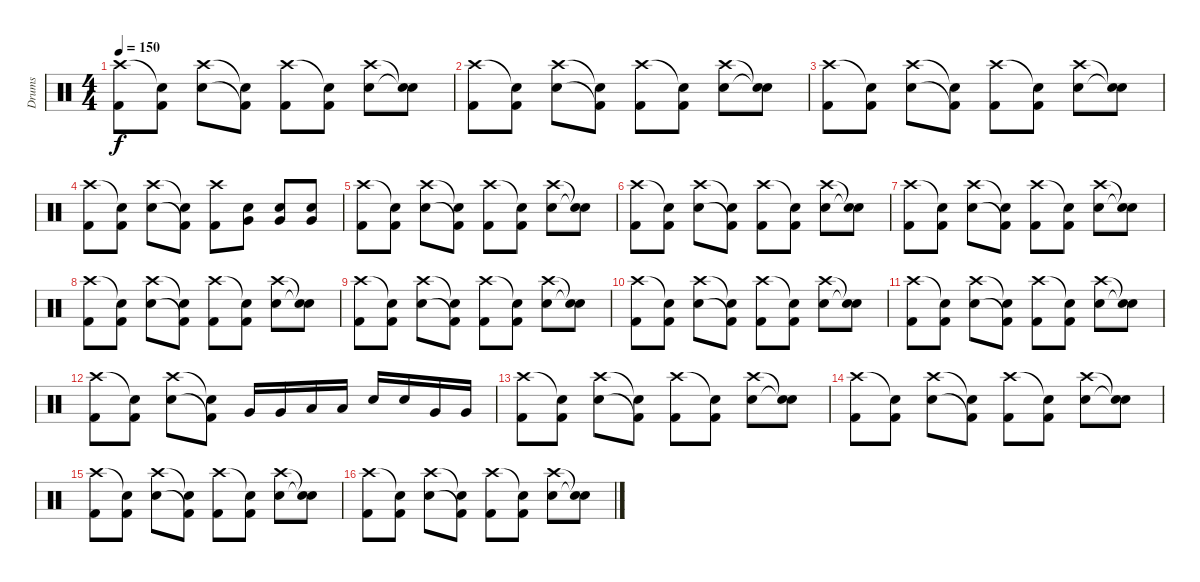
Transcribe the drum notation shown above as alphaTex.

\track ("Drums" "Drums") {instrument percussion bank 127}
\staff {score}
\articulation defaults
\ts (4 4)
\tempo 150
\clef neutral
\ks c
("Crash high (hit)" "Kick (hit) 2").8{dy f} ("Snare (hit)"{t} "Kick (hit) 2").8 ("Crash high (hit)" "Electric Snare (hit)").8 ("Snare (hit)"{t} "Kick (hit) 2"{t}).8 ("Crash high (hit)" "Kick (hit) 2").8 ("Snare (hit)"{t} "Kick (hit) 2").8 ("Crash high (hit)" "Electric Snare (hit)").8 ("Snare (hit)"{t} "Snare (hit)"{t}).8 |
("Crash high (hit)" "Kick (hit) 2").8 ("Snare (hit)"{t} "Kick (hit) 2").8 ("Crash high (hit)" "Electric Snare (hit)").8 ("Snare (hit)"{t} "Kick (hit) 2"{t}).8 ("Crash high (hit)" "Kick (hit) 2").8 ("Snare (hit)"{t} "Kick (hit) 2").8 ("Crash high (hit)" "Electric Snare (hit)").8 ("Snare (hit)"{t} "Snare (hit)"{t}).8 |
("Crash high (hit)" "Kick (hit) 2").8 ("Snare (hit)"{t} "Kick (hit) 2").8 ("Crash high (hit)" "Electric Snare (hit)").8 ("Snare (hit)"{t} "Kick (hit) 2"{t}).8 ("Crash high (hit)" "Kick (hit) 2").8 ("Snare (hit)"{t} "Kick (hit) 2").8 ("Crash high (hit)" "Electric Snare (hit)").8 ("Snare (hit)"{t} "Snare (hit)"{t}).8 |
("Crash high (hit)" "Kick (hit) 2").8 ("Snare (hit)"{t} "Kick (hit) 2").8 ("Crash high (hit)" "Electric Snare (hit)").8 ("Snare (hit)"{t} "Kick (hit) 2"{t}).8 ("Crash high (hit)" "Kick (hit) 2").8 ("Very Low Tom (hit)" "Electric Snare (hit)").8 ("Very Low Tom (hit)" "Electric Snare (hit)").8 ("Very Low Tom (hit)" "Electric Snare (hit)").8 |
("Crash high (hit)" "Kick (hit) 2").8 ("Snare (hit)"{t} "Kick (hit) 2").8 ("Crash high (hit)" "Electric Snare (hit)").8 ("Snare (hit)"{t} "Kick (hit) 2"{t}).8 ("Crash high (hit)" "Kick (hit) 2").8 ("Snare (hit)"{t} "Kick (hit) 2").8 ("Crash high (hit)" "Electric Snare (hit)").8 ("Snare (hit)"{t} "Snare (hit)"{t}).8 |
("Crash high (hit)" "Kick (hit) 2").8 ("Snare (hit)"{t} "Kick (hit) 2").8 ("Crash high (hit)" "Electric Snare (hit)").8 ("Snare (hit)"{t} "Kick (hit) 2"{t}).8 ("Crash high (hit)" "Kick (hit) 2").8 ("Snare (hit)"{t} "Kick (hit) 2").8 ("Crash high (hit)" "Electric Snare (hit)").8 ("Snare (hit)"{t} "Snare (hit)"{t}).8 |
("Crash high (hit)" "Kick (hit) 2").8 ("Snare (hit)"{t} "Kick (hit) 2").8 ("Crash high (hit)" "Electric Snare (hit)").8 ("Snare (hit)"{t} "Kick (hit) 2"{t}).8 ("Crash high (hit)" "Kick (hit) 2").8 ("Snare (hit)"{t} "Kick (hit) 2").8 ("Crash high (hit)" "Electric Snare (hit)").8 ("Snare (hit)"{t} "Snare (hit)"{t}).8 |
("Crash high (hit)" "Kick (hit) 2").8 ("Snare (hit)"{t} "Kick (hit) 2").8 ("Crash high (hit)" "Electric Snare (hit)").8 ("Snare (hit)"{t} "Kick (hit) 2"{t}).8 ("Crash high (hit)" "Kick (hit) 2").8 ("Snare (hit)"{t} "Kick (hit) 2").8 ("Crash high (hit)" "Electric Snare (hit)").8 ("Snare (hit)"{t} "Snare (hit)"{t}).8 |
("Crash high (hit)" "Kick (hit) 2").8 ("Snare (hit)"{t} "Kick (hit) 2").8 ("Crash high (hit)" "Electric Snare (hit)").8 ("Snare (hit)"{t} "Kick (hit) 2"{t}).8 ("Crash high (hit)" "Kick (hit) 2").8 ("Snare (hit)"{t} "Kick (hit) 2").8 ("Crash high (hit)" "Electric Snare (hit)").8 ("Snare (hit)"{t} "Snare (hit)"{t}).8 |
("Crash high (hit)" "Kick (hit) 2").8 ("Snare (hit)"{t} "Kick (hit) 2").8 ("Crash high (hit)" "Electric Snare (hit)").8 ("Snare (hit)"{t} "Kick (hit) 2"{t}).8 ("Crash high (hit)" "Kick (hit) 2").8 ("Snare (hit)"{t} "Kick (hit) 2").8 ("Crash high (hit)" "Electric Snare (hit)").8 ("Snare (hit)"{t} "Snare (hit)"{t}).8 |
("Crash high (hit)" "Kick (hit) 2").8 ("Snare (hit)"{t} "Kick (hit) 2").8 ("Crash high (hit)" "Electric Snare (hit)").8 ("Snare (hit)"{t} "Kick (hit) 2"{t}).8 ("Crash high (hit)" "Kick (hit) 2").8 ("Snare (hit)"{t} "Kick (hit) 2").8 ("Crash high (hit)" "Electric Snare (hit)").8 ("Snare (hit)"{t} "Snare (hit)"{t}).8 |
("Crash high (hit)" "Kick (hit) 2").8 ("Snare (hit)"{t} "Kick (hit) 2").8 ("Crash high (hit)" "Electric Snare (hit)").8 ("Snare (hit)"{t} "Kick (hit) 2"{t}).8 "Very Low Tom (hit)".16 "Very Low Tom (hit)".16 "Low Tom (hit)".16 "Low Tom (hit)".16 "Electric Snare (hit)".16 "Electric Snare (hit)".16 "Very Low Tom (hit)".16 "Very Low Tom (hit)".16 |
("Crash high (hit)" "Kick (hit) 2").8 ("Snare (hit)"{t} "Kick (hit) 2").8 ("Crash high (hit)" "Electric Snare (hit)").8 ("Snare (hit)"{t} "Kick (hit) 2"{t}).8 ("Crash high (hit)" "Kick (hit) 2").8 ("Snare (hit)"{t} "Kick (hit) 2").8 ("Crash high (hit)" "Electric Snare (hit)").8 ("Snare (hit)"{t} "Snare (hit)"{t}).8 |
("Crash high (hit)" "Kick (hit) 2").8 ("Snare (hit)"{t} "Kick (hit) 2").8 ("Crash high (hit)" "Electric Snare (hit)").8 ("Snare (hit)"{t} "Kick (hit) 2"{t}).8 ("Crash high (hit)" "Kick (hit) 2").8 ("Snare (hit)"{t} "Kick (hit) 2").8 ("Crash high (hit)" "Electric Snare (hit)").8 ("Snare (hit)"{t} "Snare (hit)"{t}).8 |
("Crash high (hit)" "Kick (hit) 2").8 ("Snare (hit)"{t} "Kick (hit) 2").8 ("Crash high (hit)" "Electric Snare (hit)").8 ("Snare (hit)"{t} "Kick (hit) 2"{t}).8 ("Crash high (hit)" "Kick (hit) 2").8 ("Snare (hit)"{t} "Kick (hit) 2").8 ("Crash high (hit)" "Electric Snare (hit)").8 ("Snare (hit)"{t} "Snare (hit)"{t}).8 |
("Crash high (hit)" "Kick (hit) 2").8 ("Snare (hit)"{t} "Kick (hit) 2").8 ("Crash high (hit)" "Electric Snare (hit)").8 ("Snare (hit)"{t} "Kick (hit) 2"{t}).8 ("Crash high (hit)" "Kick (hit) 2").8 ("Snare (hit)"{t} "Kick (hit) 2").8 ("Crash high (hit)" "Electric Snare (hit)").8 ("Snare (hit)"{t} "Snare (hit)"{t}).8
